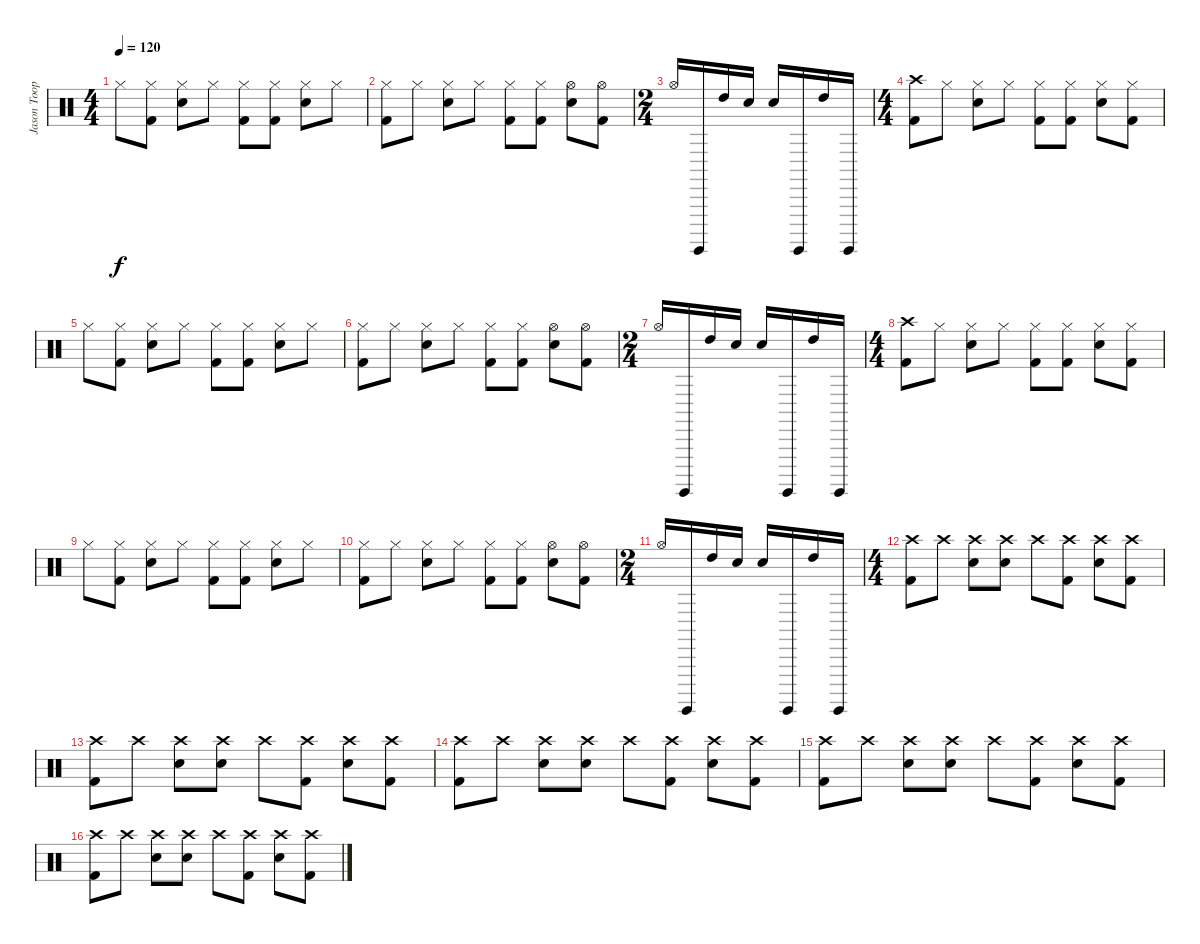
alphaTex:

\track ("Jason Toop Cooper" "Jason Toop") {instrument percussion}
\staff {score}
\articulation defaults
\ts (4 4)
\tempo 120
\clef neutral
\ks c "Hi-Hat (closed)".8{dy f}
("Hi-Hat (closed)" "Kick (hit) 2").8 ("Hi-Hat (closed)" "Electric Snare (hit)").8 "Hi-Hat (closed)".8 ("Hi-Hat (closed)" "Kick (hit) 2").8 ("Hi-Hat (closed)" "Kick (hit) 2").8 ("Hi-Hat (closed)" "Electric Snare (hit)").8 "Hi-Hat (closed)".8 |
("Hi-Hat (closed)" "Kick (hit) 2").8 "Hi-Hat (closed)".8 ("Hi-Hat (closed)" "Electric Snare (hit)").8 "Hi-Hat (closed)".8 ("Hi-Hat (closed)" "Kick (hit) 2").8 ("Hi-Hat (closed)" "Kick (hit) 2").8 ("Hi-Hat (open)" "Electric Snare (hit)").8 ("Hi-Hat (open)" "Kick (hit) 2").8 |
\ts (2 4)
"Hi-Hat (open)".16 "Surdo (hit)".16 "High Tom (hit)".16 "Electric Snare (hit)".16 "Electric Snare (hit)".16 "Surdo (hit)".16 "High Tom (hit)".16 "Surdo (hit)".16 |
\ts (4 4)
("Crash high (hit)" "Kick (hit) 2").8 "Hi-Hat (closed)".8 ("Hi-Hat (closed)" "Electric Snare (hit)").8 "Hi-Hat (closed)".8 ("Hi-Hat (closed)" "Kick (hit) 2").8 ("Hi-Hat (closed)" "Kick (hit) 2").8 ("Hi-Hat (closed)" "Electric Snare (hit)").8 ("Hi-Hat (closed)" "Kick (hit) 2").8 |
"Hi-Hat (closed)".8 ("Hi-Hat (closed)" "Kick (hit) 2").8 ("Hi-Hat (closed)" "Electric Snare (hit)").8 "Hi-Hat (closed)".8 ("Hi-Hat (closed)" "Kick (hit) 2").8 ("Hi-Hat (closed)" "Kick (hit) 2").8 ("Hi-Hat (closed)" "Electric Snare (hit)").8 "Hi-Hat (closed)".8 |
("Hi-Hat (closed)" "Kick (hit) 2").8 "Hi-Hat (closed)".8 ("Hi-Hat (closed)" "Electric Snare (hit)").8 "Hi-Hat (closed)".8 ("Hi-Hat (closed)" "Kick (hit) 2").8 ("Hi-Hat (closed)" "Kick (hit) 2").8 ("Hi-Hat (open)" "Electric Snare (hit)").8 ("Hi-Hat (open)" "Kick (hit) 2").8 |
\ts (2 4)
"Hi-Hat (open)".16 "Surdo (hit)".16 "High Tom (hit)".16 "Electric Snare (hit)".16 "Electric Snare (hit)".16 "Surdo (hit)".16 "High Tom (hit)".16 "Surdo (hit)".16 |
\ts (4 4)
("Crash high (hit)" "Kick (hit) 2").8 "Hi-Hat (closed)".8 ("Hi-Hat (closed)" "Electric Snare (hit)").8 "Hi-Hat (closed)".8 ("Hi-Hat (closed)" "Kick (hit) 2").8 ("Hi-Hat (closed)" "Kick (hit) 2").8 ("Hi-Hat (closed)" "Electric Snare (hit)").8 ("Hi-Hat (closed)" "Kick (hit) 2").8 |
"Hi-Hat (closed)".8 ("Hi-Hat (closed)" "Kick (hit) 2").8 ("Hi-Hat (closed)" "Electric Snare (hit)").8 "Hi-Hat (closed)".8 ("Hi-Hat (closed)" "Kick (hit) 2").8 ("Hi-Hat (closed)" "Kick (hit) 2").8 ("Hi-Hat (closed)" "Electric Snare (hit)").8 "Hi-Hat (closed)".8 |
("Hi-Hat (closed)" "Kick (hit) 2").8 "Hi-Hat (closed)".8 ("Hi-Hat (closed)" "Electric Snare (hit)").8 "Hi-Hat (closed)".8 ("Hi-Hat (closed)" "Kick (hit) 2").8 ("Hi-Hat (closed)" "Kick (hit) 2").8 ("Hi-Hat (open)" "Electric Snare (hit)").8 ("Hi-Hat (open)" "Kick (hit) 2").8 |
\ts (2 4)
"Hi-Hat (open)".16 "Surdo (hit)".16 "High Tom (hit)".16 "Electric Snare (hit)".16 "Electric Snare (hit)".16 "Surdo (hit)".16 "High Tom (hit)".16 "Surdo (hit)".16 |
\ts (4 4)
("Crash high (hit)" "Kick (hit) 2").8 "Crash high (hit)".8 ("Crash high (hit)" "Electric Snare (hit)").8 ("Crash high (hit)" "Electric Snare (hit)").8 "Crash high (hit)".8 ("Crash high (hit)" "Kick (hit) 2").8 ("Crash high (hit)" "Electric Snare (hit)").8 ("Crash high (hit)" "Kick (hit) 2").8 |
("Crash high (hit)" "Kick (hit) 2").8 "Crash high (hit)".8 ("Crash high (hit)" "Electric Snare (hit)").8 ("Crash high (hit)" "Electric Snare (hit)").8 "Crash high (hit)".8 ("Crash high (hit)" "Kick (hit) 2").8 ("Crash high (hit)" "Electric Snare (hit)").8 ("Crash high (hit)" "Kick (hit) 2").8 |
("Crash high (hit)" "Kick (hit) 2").8 "Crash high (hit)".8 ("Crash high (hit)" "Electric Snare (hit)").8 ("Crash high (hit)" "Electric Snare (hit)").8 "Crash high (hit)".8 ("Crash high (hit)" "Kick (hit) 2").8 ("Crash high (hit)" "Electric Snare (hit)").8 ("Crash high (hit)" "Kick (hit) 2").8 |
("Crash high (hit)" "Kick (hit) 2").8 "Crash high (hit)".8 ("Crash high (hit)" "Electric Snare (hit)").8 ("Crash high (hit)" "Electric Snare (hit)").8 "Crash high (hit)".8 ("Crash high (hit)" "Kick (hit) 2").8 ("Crash high (hit)" "Electric Snare (hit)").8 ("Crash high (hit)" "Kick (hit) 2").8 |
("Crash high (hit)" "Kick (hit) 2").8 "Crash high (hit)".8 ("Crash high (hit)" "Electric Snare (hit)").8 ("Crash high (hit)" "Electric Snare (hit)").8 "Crash high (hit)".8 ("Crash high (hit)" "Kick (hit) 2").8 ("Crash high (hit)" "Electric Snare (hit)").8 ("Crash high (hit)" "Kick (hit) 2").8
